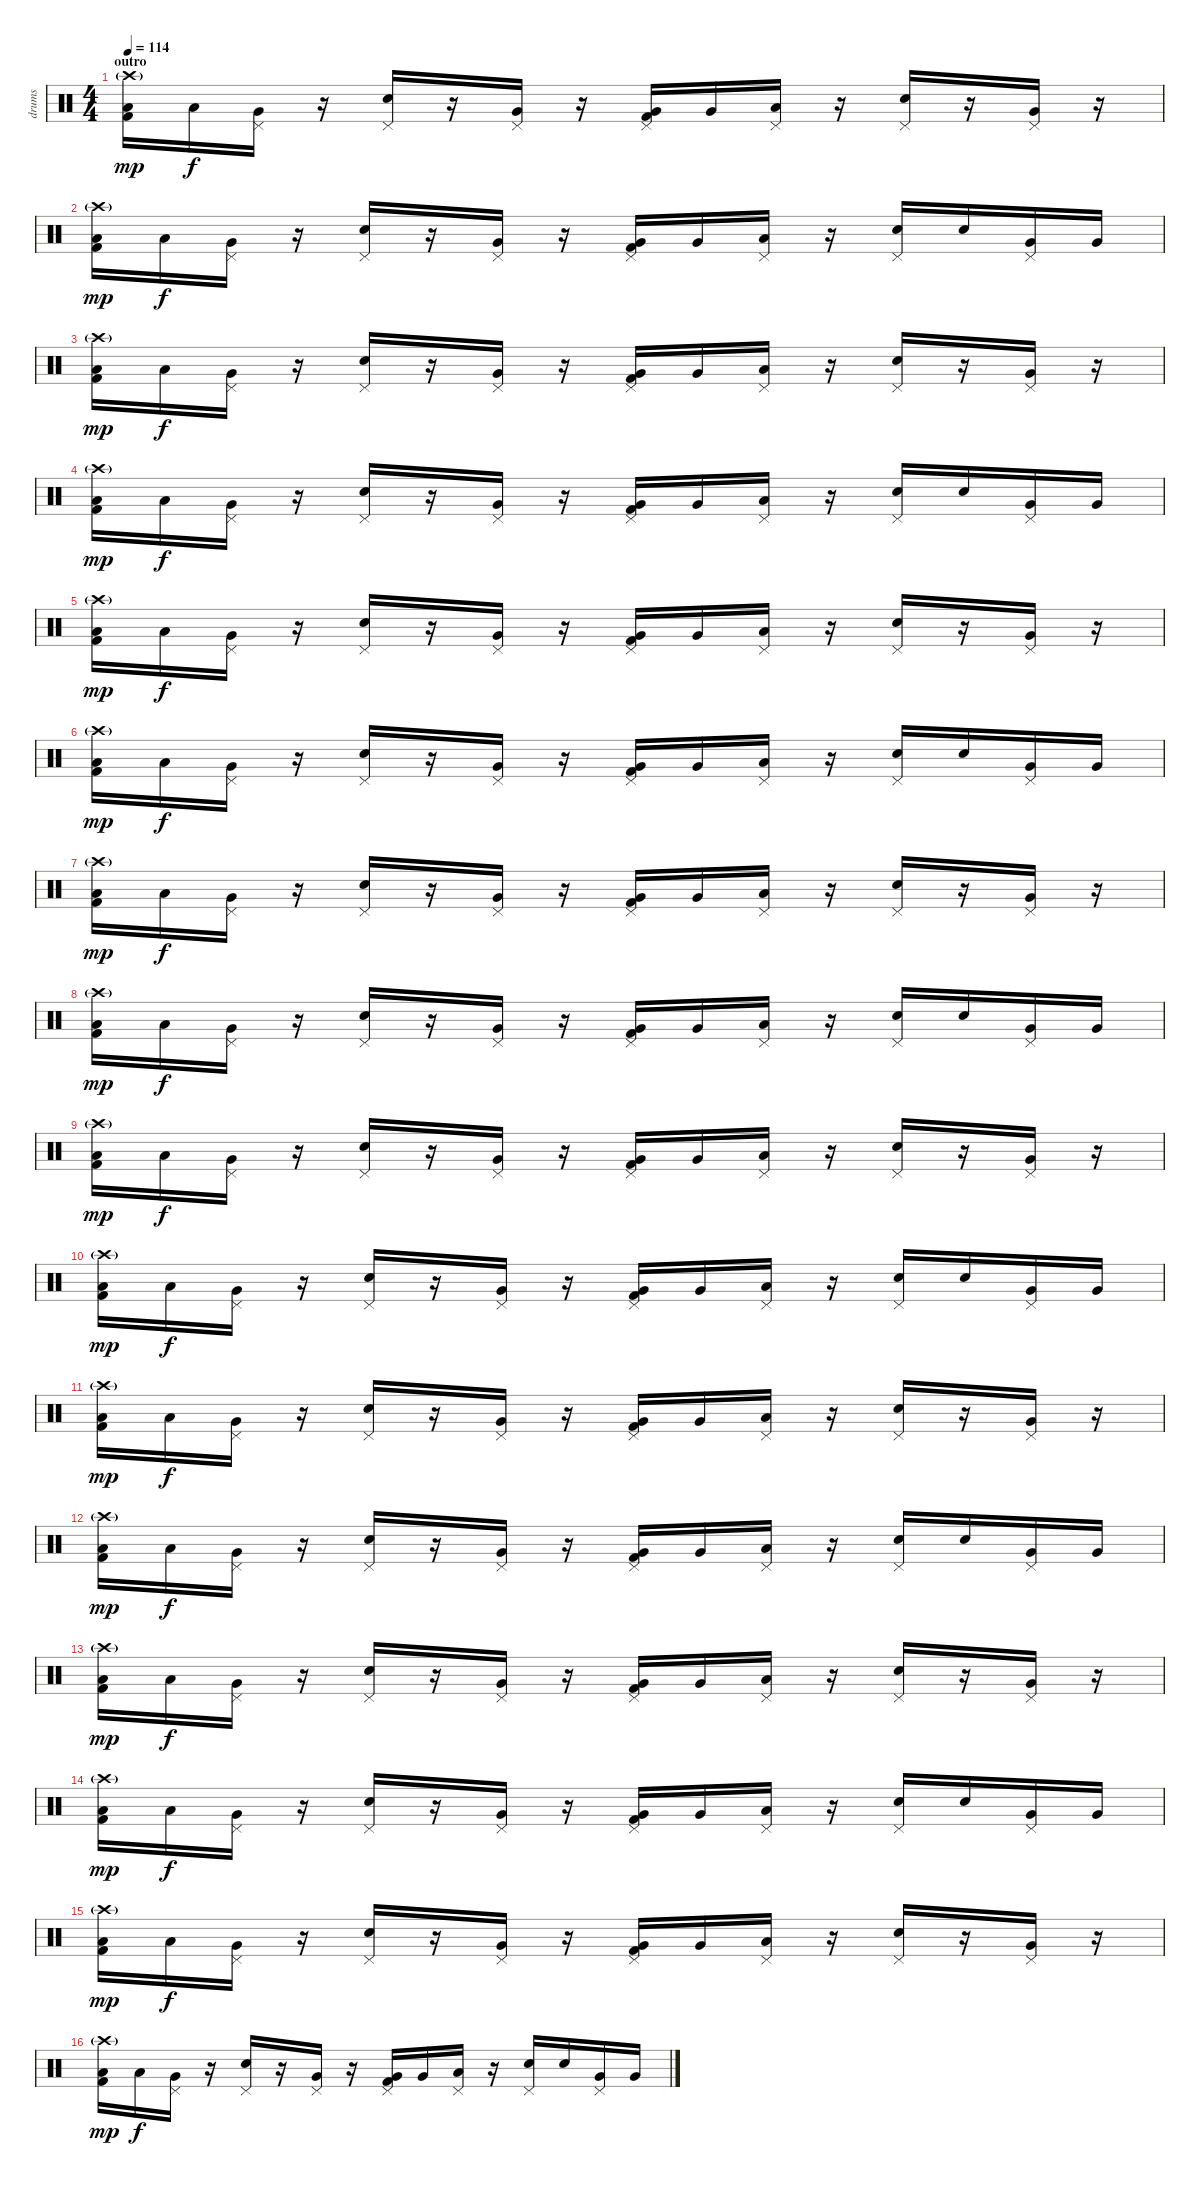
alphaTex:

\track ("drums" "drums") {instrument percussion}
\staff {score}
\articulation defaults
\ts (4 4)
\section ("" "outro")
\tempo 114
\clef neutral
\ks c
("Kick (hit) 2" "Low Floor Tom (hit)" "Crash high (hit)"{g}).16{dy mp} "Low Floor Tom (hit)".16{dy f} ("Very Low Tom (hit)" "Pedal Hi-Hat (hit)").16 r.16 ("Electric Snare (hit)" "Pedal Hi-Hat (hit)").16 r.16 ("Very Low Tom (hit)" "Pedal Hi-Hat (hit)").16 r.16 ("Kick (hit) 2" "Very Low Tom (hit)" "Pedal Hi-Hat (hit)").16 "Very Low Tom (hit)".16 ("Low Floor Tom (hit)" "Pedal Hi-Hat (hit)").16 r.16 ("Electric Snare (hit)" "Pedal Hi-Hat (hit)").16 r.16 ("Very Low Tom (hit)" "Pedal Hi-Hat (hit)").16 r.16 |
("Kick (hit) 2" "Low Floor Tom (hit)" "Crash high (hit)"{g}).16{dy mp} "Low Floor Tom (hit)".16{dy f} ("Very Low Tom (hit)" "Pedal Hi-Hat (hit)").16 r.16 ("Electric Snare (hit)" "Pedal Hi-Hat (hit)").16 r.16 ("Very Low Tom (hit)" "Pedal Hi-Hat (hit)").16 r.16 ("Kick (hit) 2" "Very Low Tom (hit)" "Pedal Hi-Hat (hit)").16 "Very Low Tom (hit)".16 ("Low Floor Tom (hit)" "Pedal Hi-Hat (hit)").16 r.16 ("Electric Snare (hit)" "Pedal Hi-Hat (hit)").16 "Electric Snare (hit)".16 ("Very Low Tom (hit)" "Pedal Hi-Hat (hit)").16 "Very Low Tom (hit)".16 |
("Kick (hit) 2" "Low Floor Tom (hit)" "Crash high (hit)"{g}).16{dy mp} "Low Floor Tom (hit)".16{dy f} ("Very Low Tom (hit)" "Pedal Hi-Hat (hit)").16 r.16 ("Electric Snare (hit)" "Pedal Hi-Hat (hit)").16 r.16 ("Very Low Tom (hit)" "Pedal Hi-Hat (hit)").16 r.16 ("Kick (hit) 2" "Very Low Tom (hit)" "Pedal Hi-Hat (hit)").16 "Very Low Tom (hit)".16 ("Low Floor Tom (hit)" "Pedal Hi-Hat (hit)").16 r.16 ("Electric Snare (hit)" "Pedal Hi-Hat (hit)").16 r.16 ("Very Low Tom (hit)" "Pedal Hi-Hat (hit)").16 r.16 |
("Kick (hit) 2" "Low Floor Tom (hit)" "Crash high (hit)"{g}).16{dy mp} "Low Floor Tom (hit)".16{dy f} ("Very Low Tom (hit)" "Pedal Hi-Hat (hit)").16 r.16 ("Electric Snare (hit)" "Pedal Hi-Hat (hit)").16 r.16 ("Very Low Tom (hit)" "Pedal Hi-Hat (hit)").16 r.16 ("Kick (hit) 2" "Very Low Tom (hit)" "Pedal Hi-Hat (hit)").16 "Very Low Tom (hit)".16 ("Low Floor Tom (hit)" "Pedal Hi-Hat (hit)").16 r.16 ("Electric Snare (hit)" "Pedal Hi-Hat (hit)").16 "Electric Snare (hit)".16 ("Very Low Tom (hit)" "Pedal Hi-Hat (hit)").16 "Very Low Tom (hit)".16 |
("Kick (hit) 2" "Low Floor Tom (hit)" "Crash high (hit)"{g}).16{dy mp} "Low Floor Tom (hit)".16{dy f} ("Very Low Tom (hit)" "Pedal Hi-Hat (hit)").16 r.16 ("Electric Snare (hit)" "Pedal Hi-Hat (hit)").16 r.16 ("Very Low Tom (hit)" "Pedal Hi-Hat (hit)").16 r.16 ("Kick (hit) 2" "Very Low Tom (hit)" "Pedal Hi-Hat (hit)").16 "Very Low Tom (hit)".16 ("Low Floor Tom (hit)" "Pedal Hi-Hat (hit)").16 r.16 ("Electric Snare (hit)" "Pedal Hi-Hat (hit)").16 r.16 ("Very Low Tom (hit)" "Pedal Hi-Hat (hit)").16 r.16 |
("Kick (hit) 2" "Low Floor Tom (hit)" "Crash high (hit)"{g}).16{dy mp} "Low Floor Tom (hit)".16{dy f} ("Very Low Tom (hit)" "Pedal Hi-Hat (hit)").16 r.16 ("Electric Snare (hit)" "Pedal Hi-Hat (hit)").16 r.16 ("Very Low Tom (hit)" "Pedal Hi-Hat (hit)").16 r.16 ("Kick (hit) 2" "Very Low Tom (hit)" "Pedal Hi-Hat (hit)").16 "Very Low Tom (hit)".16 ("Low Floor Tom (hit)" "Pedal Hi-Hat (hit)").16 r.16 ("Electric Snare (hit)" "Pedal Hi-Hat (hit)").16 "Electric Snare (hit)".16 ("Very Low Tom (hit)" "Pedal Hi-Hat (hit)").16 "Very Low Tom (hit)".16 |
("Kick (hit) 2" "Low Floor Tom (hit)" "Crash high (hit)"{g}).16{dy mp} "Low Floor Tom (hit)".16{dy f} ("Very Low Tom (hit)" "Pedal Hi-Hat (hit)").16 r.16 ("Electric Snare (hit)" "Pedal Hi-Hat (hit)").16 r.16 ("Very Low Tom (hit)" "Pedal Hi-Hat (hit)").16 r.16 ("Kick (hit) 2" "Very Low Tom (hit)" "Pedal Hi-Hat (hit)").16 "Very Low Tom (hit)".16 ("Low Floor Tom (hit)" "Pedal Hi-Hat (hit)").16 r.16 ("Electric Snare (hit)" "Pedal Hi-Hat (hit)").16 r.16 ("Very Low Tom (hit)" "Pedal Hi-Hat (hit)").16 r.16 |
("Kick (hit) 2" "Low Floor Tom (hit)" "Crash high (hit)"{g}).16{dy mp} "Low Floor Tom (hit)".16{dy f} ("Very Low Tom (hit)" "Pedal Hi-Hat (hit)").16 r.16 ("Electric Snare (hit)" "Pedal Hi-Hat (hit)").16 r.16 ("Very Low Tom (hit)" "Pedal Hi-Hat (hit)").16 r.16 ("Kick (hit) 2" "Very Low Tom (hit)" "Pedal Hi-Hat (hit)").16 "Very Low Tom (hit)".16 ("Low Floor Tom (hit)" "Pedal Hi-Hat (hit)").16 r.16 ("Electric Snare (hit)" "Pedal Hi-Hat (hit)").16 "Electric Snare (hit)".16 ("Very Low Tom (hit)" "Pedal Hi-Hat (hit)").16 "Very Low Tom (hit)".16 |
("Kick (hit) 2" "Low Floor Tom (hit)" "Crash high (hit)"{g}).16{dy mp} "Low Floor Tom (hit)".16{dy f} ("Very Low Tom (hit)" "Pedal Hi-Hat (hit)").16 r.16 ("Electric Snare (hit)" "Pedal Hi-Hat (hit)").16 r.16 ("Very Low Tom (hit)" "Pedal Hi-Hat (hit)").16 r.16 ("Kick (hit) 2" "Very Low Tom (hit)" "Pedal Hi-Hat (hit)").16 "Very Low Tom (hit)".16 ("Low Floor Tom (hit)" "Pedal Hi-Hat (hit)").16 r.16 ("Electric Snare (hit)" "Pedal Hi-Hat (hit)").16 r.16 ("Very Low Tom (hit)" "Pedal Hi-Hat (hit)").16 r.16 |
("Kick (hit) 2" "Low Floor Tom (hit)" "Crash high (hit)"{g}).16{dy mp} "Low Floor Tom (hit)".16{dy f} ("Very Low Tom (hit)" "Pedal Hi-Hat (hit)").16 r.16 ("Electric Snare (hit)" "Pedal Hi-Hat (hit)").16 r.16 ("Very Low Tom (hit)" "Pedal Hi-Hat (hit)").16 r.16 ("Kick (hit) 2" "Very Low Tom (hit)" "Pedal Hi-Hat (hit)").16 "Very Low Tom (hit)".16 ("Low Floor Tom (hit)" "Pedal Hi-Hat (hit)").16 r.16 ("Electric Snare (hit)" "Pedal Hi-Hat (hit)").16 "Electric Snare (hit)".16 ("Very Low Tom (hit)" "Pedal Hi-Hat (hit)").16 "Very Low Tom (hit)".16 |
("Kick (hit) 2" "Low Floor Tom (hit)" "Crash high (hit)"{g}).16{dy mp} "Low Floor Tom (hit)".16{dy f} ("Very Low Tom (hit)" "Pedal Hi-Hat (hit)").16 r.16 ("Electric Snare (hit)" "Pedal Hi-Hat (hit)").16 r.16 ("Very Low Tom (hit)" "Pedal Hi-Hat (hit)").16 r.16 ("Kick (hit) 2" "Very Low Tom (hit)" "Pedal Hi-Hat (hit)").16 "Very Low Tom (hit)".16 ("Low Floor Tom (hit)" "Pedal Hi-Hat (hit)").16 r.16 ("Electric Snare (hit)" "Pedal Hi-Hat (hit)").16 r.16 ("Very Low Tom (hit)" "Pedal Hi-Hat (hit)").16 r.16 |
("Kick (hit) 2" "Low Floor Tom (hit)" "Crash high (hit)"{g}).16{dy mp} "Low Floor Tom (hit)".16{dy f} ("Very Low Tom (hit)" "Pedal Hi-Hat (hit)").16 r.16 ("Electric Snare (hit)" "Pedal Hi-Hat (hit)").16 r.16 ("Very Low Tom (hit)" "Pedal Hi-Hat (hit)").16 r.16 ("Kick (hit) 2" "Very Low Tom (hit)" "Pedal Hi-Hat (hit)").16 "Very Low Tom (hit)".16 ("Low Floor Tom (hit)" "Pedal Hi-Hat (hit)").16 r.16 ("Electric Snare (hit)" "Pedal Hi-Hat (hit)").16 "Electric Snare (hit)".16 ("Very Low Tom (hit)" "Pedal Hi-Hat (hit)").16 "Very Low Tom (hit)".16 |
("Kick (hit) 2" "Low Floor Tom (hit)" "Crash high (hit)"{g}).16{dy mp} "Low Floor Tom (hit)".16{dy f} ("Very Low Tom (hit)" "Pedal Hi-Hat (hit)").16 r.16 ("Electric Snare (hit)" "Pedal Hi-Hat (hit)").16 r.16 ("Very Low Tom (hit)" "Pedal Hi-Hat (hit)").16 r.16 ("Kick (hit) 2" "Very Low Tom (hit)" "Pedal Hi-Hat (hit)").16 "Very Low Tom (hit)".16 ("Low Floor Tom (hit)" "Pedal Hi-Hat (hit)").16 r.16 ("Electric Snare (hit)" "Pedal Hi-Hat (hit)").16 r.16 ("Very Low Tom (hit)" "Pedal Hi-Hat (hit)").16 r.16 |
("Kick (hit) 2" "Low Floor Tom (hit)" "Crash high (hit)"{g}).16{dy mp} "Low Floor Tom (hit)".16{dy f} ("Very Low Tom (hit)" "Pedal Hi-Hat (hit)").16 r.16 ("Electric Snare (hit)" "Pedal Hi-Hat (hit)").16 r.16 ("Very Low Tom (hit)" "Pedal Hi-Hat (hit)").16 r.16 ("Kick (hit) 2" "Very Low Tom (hit)" "Pedal Hi-Hat (hit)").16 "Very Low Tom (hit)".16 ("Low Floor Tom (hit)" "Pedal Hi-Hat (hit)").16 r.16 ("Electric Snare (hit)" "Pedal Hi-Hat (hit)").16 "Electric Snare (hit)".16 ("Very Low Tom (hit)" "Pedal Hi-Hat (hit)").16 "Very Low Tom (hit)".16 |
("Kick (hit) 2" "Low Floor Tom (hit)" "Crash high (hit)"{g}).16{dy mp} "Low Floor Tom (hit)".16{dy f} ("Very Low Tom (hit)" "Pedal Hi-Hat (hit)").16 r.16 ("Electric Snare (hit)" "Pedal Hi-Hat (hit)").16 r.16 ("Very Low Tom (hit)" "Pedal Hi-Hat (hit)").16 r.16 ("Kick (hit) 2" "Very Low Tom (hit)" "Pedal Hi-Hat (hit)").16 "Very Low Tom (hit)".16 ("Low Floor Tom (hit)" "Pedal Hi-Hat (hit)").16 r.16 ("Electric Snare (hit)" "Pedal Hi-Hat (hit)").16 r.16 ("Very Low Tom (hit)" "Pedal Hi-Hat (hit)").16 r.16 |
("Kick (hit) 2" "Low Floor Tom (hit)" "Crash high (hit)"{g}).16{dy mp} "Low Floor Tom (hit)".16{dy f} ("Very Low Tom (hit)" "Pedal Hi-Hat (hit)").16 r.16 ("Electric Snare (hit)" "Pedal Hi-Hat (hit)").16 r.16 ("Very Low Tom (hit)" "Pedal Hi-Hat (hit)").16 r.16 ("Kick (hit) 2" "Very Low Tom (hit)" "Pedal Hi-Hat (hit)").16 "Very Low Tom (hit)".16 ("Low Floor Tom (hit)" "Pedal Hi-Hat (hit)").16 r.16 ("Electric Snare (hit)" "Pedal Hi-Hat (hit)").16 "Electric Snare (hit)".16 ("Very Low Tom (hit)" "Pedal Hi-Hat (hit)").16 "Very Low Tom (hit)".16
